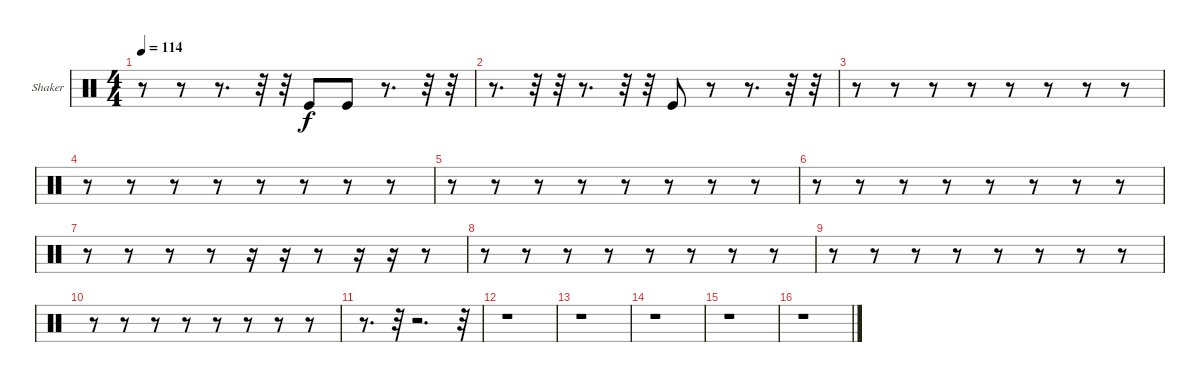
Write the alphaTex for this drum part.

\bracketExtendMode groupsimilarinstruments
\firstSystemTrackNameOrientation horizontal
\otherSystemsTrackNameOrientation horizontal
\track ("Shaker" "Shaker") {instrument percussion}
\staff {score}
\articulation defaults
\ts (4 4)
\tempo 114
\clef neutral
\ks c
r.8{dy f} r.8 r.8{d} r.32 r.32 "Kick (hit)".8 "Kick (hit)".8 r.8{d} r.32 r.32 |
r.8{d} r.32 r.32 r.8{d} r.32 r.32 "Kick (hit)".8 r.8 r.8{d} r.32 r.32 |
r.8 r.8 r.8 r.8 r.8 r.8 r.8 r.8 |
r.8 r.8 r.8 r.8 r.8 r.8 r.8 r.8 |
r.8 r.8 r.8 r.8 r.8 r.8 r.8 r.8 |
r.8 r.8 r.8 r.8 r.8 r.8 r.8 r.8 |
r.8 r.8 r.8 r.8 r.16 r.16 r.8 r.16 r.16 r.8 |
r.8 r.8 r.8 r.8 r.8 r.8 r.8 r.8 |
r.8 r.8 r.8 r.8 r.8 r.8 r.8 r.8 |
r.8 r.8 r.8 r.8 r.8 r.8 r.8 r.8 |
r.8{d} r.32 r.2{d} r.32 |
r.1 |
r.1 |
r.1 |
r.1 |
r.1
